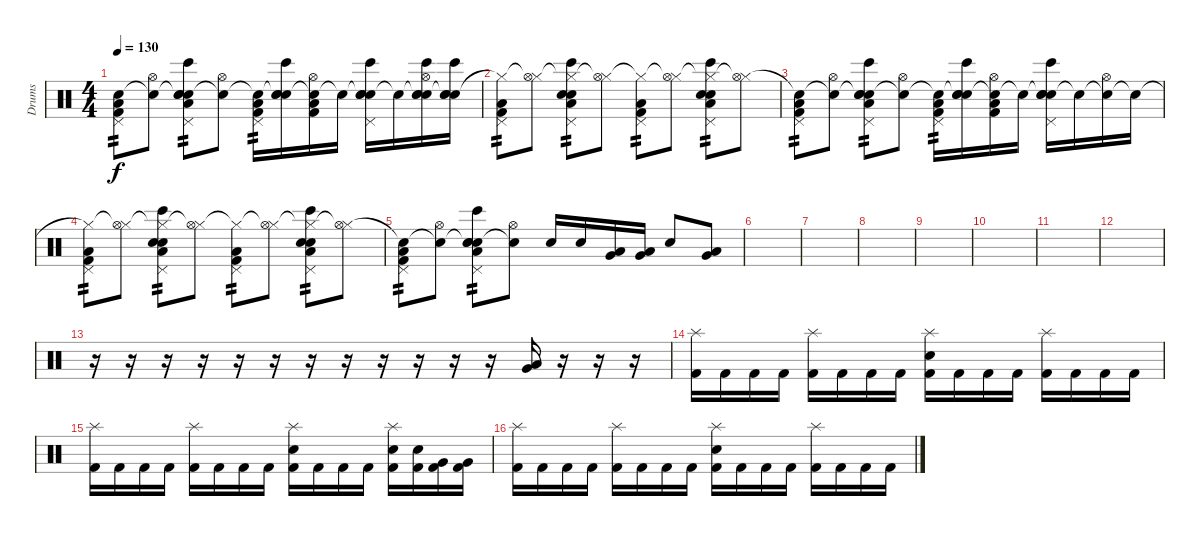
\track ("Drums" "Drums") {instrument percussion}
\staff {score}
\articulation defaults
\ts (4 4)
\tempo 130
\clef neutral
\ks c
("Snare (hit)"{t} "Pedal Hi-Hat (hit)" "Kick (hit) 2" "Low Floor Tom (hit)").8{tp 2 dy f} ("Snare (hit)"{t} "Hi-Hat (open)").8 ("Snare (hit)"{t} "Electric Snare (hit)" "Pedal Hi-Hat (hit)" "Bongo High (hit)" "Hand Clap (hit)" "Low Floor Tom (hit)").8{tp 2} ("Snare (hit)"{t} "Hi-Hat (open)").8 ("Snare (hit)"{t} "Pedal Hi-Hat (hit)" "Kick (hit) 2" "Low Floor Tom (hit)").16{tp 2} ("Snare (hit)"{t} "Electric Snare (hit)" "Bongo High (hit)" "Hand Clap (hit)").16 ("Snare (hit)"{t} "Hi-Hat (open)" "Low Floor Tom (hit)" "Kick (hit) 2").16 "Snare (hit)"{t}.16 ("Snare (hit)"{t} "Electric Snare (hit)" "Pedal Hi-Hat (hit)" "Bongo High (hit)" "Hand Clap (hit)").16 "Snare (hit)"{t}.16 ("Snare (hit)"{t} "Electric Snare (hit)" "Hi-Hat (open)" "Bongo High (hit)" "Hand Clap (hit)").16 ("Snare (hit)"{t} "Electric Snare (hit)" "Bongo High (hit)" "Hand Clap (hit)").16 |
("Hi-Hat (closed)"{t} "Pedal Hi-Hat (hit)" "Kick (hit) 2" "Low Floor Tom (hit)").8{tp 2} ("Hi-Hat (closed)"{t} "Hi-Hat (open)").8 ("Hi-Hat (closed)"{t} "Electric Snare (hit)" "Pedal Hi-Hat (hit)" "Bongo High (hit)" "Hand Clap (hit)" "Low Floor Tom (hit)").8{tp 2} ("Hi-Hat (closed)"{t} "Hi-Hat (open)").8 ("Hi-Hat (closed)"{t} "Pedal Hi-Hat (hit)" "Kick (hit) 2" "Low Floor Tom (hit)").8{tp 2} ("Hi-Hat (closed)"{t} "Hi-Hat (open)").8 ("Hi-Hat (closed)"{t} "Electric Snare (hit)" "Pedal Hi-Hat (hit)" "Bongo High (hit)" "Hand Clap (hit)" "Low Floor Tom (hit)").8{tp 2} ("Hi-Hat (closed)"{t} "Hi-Hat (open)").8 |
("Snare (hit)"{t} "Pedal Hi-Hat (hit)" "Kick (hit) 2" "Low Floor Tom (hit)").8{tp 2} ("Snare (hit)"{t} "Hi-Hat (open)").8 ("Snare (hit)"{t} "Electric Snare (hit)" "Pedal Hi-Hat (hit)" "Bongo High (hit)" "Hand Clap (hit)" "Low Floor Tom (hit)").8{tp 2} ("Snare (hit)"{t} "Hi-Hat (open)").8 ("Snare (hit)"{t} "Pedal Hi-Hat (hit)" "Kick (hit) 2" "Low Floor Tom (hit)").16{tp 2} ("Snare (hit)"{t} "Electric Snare (hit)" "Bongo High (hit)" "Hand Clap (hit)").16 ("Snare (hit)"{t} "Hi-Hat (open)" "Low Floor Tom (hit)" "Kick (hit) 2").16 "Snare (hit)"{t}.16 ("Snare (hit)"{t} "Electric Snare (hit)" "Pedal Hi-Hat (hit)" "Bongo High (hit)" "Hand Clap (hit)").16 "Snare (hit)"{t}.16 ("Snare (hit)"{t} "Hi-Hat (open)").16 "Snare (hit)"{t}.16 |
("Hi-Hat (closed)"{t} "Pedal Hi-Hat (hit)" "Kick (hit) 2" "Low Floor Tom (hit)").8{tp 2} ("Hi-Hat (closed)"{t} "Hi-Hat (open)").8 ("Hi-Hat (closed)"{t} "Electric Snare (hit)" "Pedal Hi-Hat (hit)" "Bongo High (hit)" "Hand Clap (hit)" "Low Floor Tom (hit)").8{tp 2} ("Hi-Hat (closed)"{t} "Hi-Hat (open)").8 ("Hi-Hat (closed)"{t} "Pedal Hi-Hat (hit)" "Kick (hit) 2" "Low Floor Tom (hit)").8{tp 2} ("Hi-Hat (closed)"{t} "Hi-Hat (open)").8 ("Hi-Hat (closed)"{t} "Electric Snare (hit)" "Pedal Hi-Hat (hit)" "Bongo High (hit)" "Hand Clap (hit)" "Low Floor Tom (hit)").8{tp 2} ("Hi-Hat (closed)"{t} "Hi-Hat (open)").8 |
("Snare (hit)"{t} "Pedal Hi-Hat (hit)" "Kick (hit) 2" "Low Floor Tom (hit)").8{tp 2} ("Snare (hit)"{t} "Hi-Hat (open)").8 ("Snare (hit)"{t} "Electric Snare (hit)" "Pedal Hi-Hat (hit)" "Bongo High (hit)" "Hand Clap (hit)" "Low Floor Tom (hit)").8{tp 2} ("Snare (hit)"{t} "Hi-Hat (open)").8 "Electric Snare (hit)".16 "Electric Snare (hit)".16 ("Low Tom (hit)" "Very Low Tom (hit)").16 ("Low Tom (hit)" "Very Low Tom (hit)").16 "Electric Snare (hit)".8 ("Low Floor Tom (hit)" "Very Low Tom (hit)").8 |
|
|
|
|
|
|
|
r.16 r.16 r.16 r.16 r.16 r.16 r.16 r.16 r.16 r.16 r.16 r.16 ("Very Low Tom (hit)" "Low Floor Tom (hit)").16 r.16 r.16 r.16 |
("Splash (hit)" "Kick (hit) 2").16 "Kick (hit) 2".16 "Kick (hit) 2".16 "Kick (hit) 2".16 ("Splash (hit)" "Kick (hit) 2").16 "Kick (hit) 2".16 "Kick (hit) 2".16 "Kick (hit) 2".16 ("Splash (hit)" "Electric Snare (hit)" "Kick (hit) 2").16 "Kick (hit) 2".16 "Kick (hit) 2".16 "Kick (hit) 2".16 ("Splash (hit)" "Kick (hit) 2").16 "Kick (hit) 2".16 "Kick (hit) 2".16 "Kick (hit) 2".16 |
("Splash (hit)" "Kick (hit) 2").16 "Kick (hit) 2".16 "Kick (hit) 2".16 "Kick (hit) 2".16 ("Splash (hit)" "Kick (hit) 2").16 "Kick (hit) 2".16 "Kick (hit) 2".16 "Kick (hit) 2".16 ("Splash (hit)" "Electric Snare (hit)" "Kick (hit) 2").16 "Kick (hit) 2".16 "Kick (hit) 2".16 "Kick (hit) 2".16 ("Splash (hit)" "Electric Snare (hit)" "Kick (hit) 2").16 ("Electric Snare (hit)" "Kick (hit) 2").16 ("Very Low Tom (hit)" "Kick (hit) 2").16 ("Very Low Tom (hit)" "Kick (hit) 2").16 |
("Splash (hit)" "Kick (hit) 2").16 "Kick (hit) 2".16 "Kick (hit) 2".16 "Kick (hit) 2".16 ("Splash (hit)" "Kick (hit) 2").16 "Kick (hit) 2".16 "Kick (hit) 2".16 "Kick (hit) 2".16 ("Splash (hit)" "Electric Snare (hit)" "Kick (hit) 2").16 "Kick (hit) 2".16 "Kick (hit) 2".16 "Kick (hit) 2".16 ("Splash (hit)" "Kick (hit) 2").16 "Kick (hit) 2".16 "Kick (hit) 2".16 "Kick (hit) 2".16
